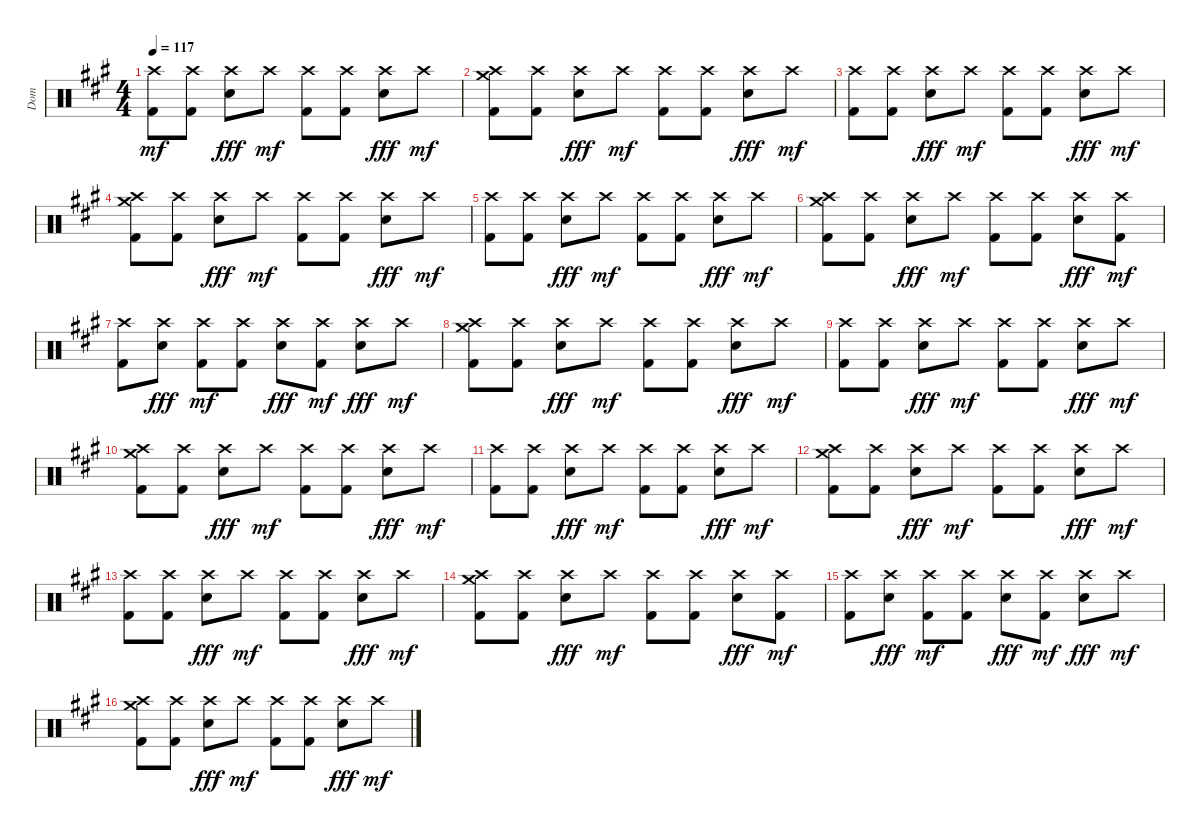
\track ("Dom" "Dom") {instrument percussion}
\staff {score}
\articulation defaults
\ts (4 4)
\tempo 117
\clef neutral
\ks a
("Crash high (hit)" "Kick (hit) 2").8{dy mf} ("Crash high (hit)" "Kick (hit) 2").8 ("Crash high (hit)" "Snare (hit) 2").8{dy fff} "Crash high (hit)".8{dy mf} ("Crash high (hit)" "Kick (hit) 2").8 ("Crash high (hit)" "Kick (hit) 2").8 ("Crash high (hit)" "Snare (hit) 2").8{dy fff} "Crash high (hit)".8{dy mf} |
("Crash medium (hit)" "Crash high (hit)" "Kick (hit) 2").8 ("Crash high (hit)" "Kick (hit) 2").8 ("Crash high (hit)" "Snare (hit) 2").8{dy fff} "Crash high (hit)".8{dy mf} ("Crash high (hit)" "Kick (hit) 2").8 ("Crash high (hit)" "Kick (hit) 2").8 ("Crash high (hit)" "Snare (hit) 2").8{dy fff} "Crash high (hit)".8{dy mf} |
("Crash high (hit)" "Kick (hit) 2").8 ("Crash high (hit)" "Kick (hit) 2").8 ("Crash high (hit)" "Snare (hit) 2").8{dy fff} "Crash high (hit)".8{dy mf} ("Crash high (hit)" "Kick (hit) 2").8 ("Crash high (hit)" "Kick (hit) 2").8 ("Crash high (hit)" "Snare (hit) 2").8{dy fff} "Crash high (hit)".8{dy mf} |
("Crash medium (hit)" "Crash high (hit)" "Kick (hit) 2").8 ("Crash high (hit)" "Kick (hit) 2").8 ("Crash high (hit)" "Snare (hit) 2").8{dy fff} "Crash high (hit)".8{dy mf} ("Crash high (hit)" "Kick (hit) 2").8 ("Crash high (hit)" "Kick (hit) 2").8 ("Crash high (hit)" "Snare (hit) 2").8{dy fff} "Crash high (hit)".8{dy mf} |
("Crash high (hit)" "Kick (hit) 2").8 ("Crash high (hit)" "Kick (hit) 2").8 ("Crash high (hit)" "Snare (hit) 2").8{dy fff} "Crash high (hit)".8{dy mf} ("Crash high (hit)" "Kick (hit) 2").8 ("Crash high (hit)" "Kick (hit) 2").8 ("Crash high (hit)" "Snare (hit) 2").8{dy fff} "Crash high (hit)".8{dy mf} |
("Crash medium (hit)" "Crash high (hit)" "Kick (hit) 2").8 ("Crash high (hit)" "Kick (hit) 2").8 ("Crash high (hit)" "Snare (hit) 2").8{dy fff} "Crash high (hit)".8{dy mf} ("Crash high (hit)" "Kick (hit) 2").8 ("Crash high (hit)" "Kick (hit) 2").8 ("Crash high (hit)" "Snare (hit) 2").8{dy fff} ("Crash high (hit)" "Kick (hit) 2").8{dy mf} |
("Crash high (hit)" "Kick (hit) 2").8 ("Crash high (hit)" "Snare (hit) 2").8{dy fff} ("Crash high (hit)" "Kick (hit) 2").8{dy mf} ("Crash high (hit)" "Kick (hit) 2").8 ("Crash high (hit)" "Snare (hit) 2").8{dy fff} ("Crash high (hit)" "Kick (hit) 2").8{dy mf} ("Crash high (hit)" "Snare (hit) 2").8{dy fff} "Crash high (hit)".8{dy mf} |
("Crash medium (hit)" "Crash high (hit)" "Kick (hit) 2").8 ("Crash high (hit)" "Kick (hit) 2").8 ("Crash high (hit)" "Snare (hit) 2").8{dy fff} "Crash high (hit)".8{dy mf} ("Crash high (hit)" "Kick (hit) 2").8 ("Crash high (hit)" "Kick (hit) 2").8 ("Crash high (hit)" "Snare (hit) 2").8{dy fff} "Crash high (hit)".8{dy mf} |
("Crash high (hit)" "Kick (hit) 2").8 ("Crash high (hit)" "Kick (hit) 2").8 ("Crash high (hit)" "Snare (hit) 2").8{dy fff} "Crash high (hit)".8{dy mf} ("Crash high (hit)" "Kick (hit) 2").8 ("Crash high (hit)" "Kick (hit) 2").8 ("Crash high (hit)" "Snare (hit) 2").8{dy fff} "Crash high (hit)".8{dy mf} |
("Crash medium (hit)" "Crash high (hit)" "Kick (hit) 2").8 ("Crash high (hit)" "Kick (hit) 2").8 ("Crash high (hit)" "Snare (hit) 2").8{dy fff} "Crash high (hit)".8{dy mf} ("Crash high (hit)" "Kick (hit) 2").8 ("Crash high (hit)" "Kick (hit) 2").8 ("Crash high (hit)" "Snare (hit) 2").8{dy fff} "Crash high (hit)".8{dy mf} |
("Crash high (hit)" "Kick (hit) 2").8 ("Crash high (hit)" "Kick (hit) 2").8 ("Crash high (hit)" "Snare (hit) 2").8{dy fff} "Crash high (hit)".8{dy mf} ("Crash high (hit)" "Kick (hit) 2").8 ("Crash high (hit)" "Kick (hit) 2").8 ("Crash high (hit)" "Snare (hit) 2").8{dy fff} "Crash high (hit)".8{dy mf} |
("Crash medium (hit)" "Crash high (hit)" "Kick (hit) 2").8 ("Crash high (hit)" "Kick (hit) 2").8 ("Crash high (hit)" "Snare (hit) 2").8{dy fff} "Crash high (hit)".8{dy mf} ("Crash high (hit)" "Kick (hit) 2").8 ("Crash high (hit)" "Kick (hit) 2").8 ("Crash high (hit)" "Snare (hit) 2").8{dy fff} "Crash high (hit)".8{dy mf} |
("Crash high (hit)" "Kick (hit) 2").8 ("Crash high (hit)" "Kick (hit) 2").8 ("Crash high (hit)" "Snare (hit) 2").8{dy fff} "Crash high (hit)".8{dy mf} ("Crash high (hit)" "Kick (hit) 2").8 ("Crash high (hit)" "Kick (hit) 2").8 ("Crash high (hit)" "Snare (hit) 2").8{dy fff} "Crash high (hit)".8{dy mf} |
("Crash medium (hit)" "Crash high (hit)" "Kick (hit) 2").8 ("Crash high (hit)" "Kick (hit) 2").8 ("Crash high (hit)" "Snare (hit) 2").8{dy fff} "Crash high (hit)".8{dy mf} ("Crash high (hit)" "Kick (hit) 2").8 ("Crash high (hit)" "Kick (hit) 2").8 ("Crash high (hit)" "Snare (hit) 2").8{dy fff} ("Crash high (hit)" "Kick (hit) 2").8{dy mf} |
("Crash high (hit)" "Kick (hit) 2").8 ("Crash high (hit)" "Snare (hit) 2").8{dy fff} ("Crash high (hit)" "Kick (hit) 2").8{dy mf} ("Crash high (hit)" "Kick (hit) 2").8 ("Crash high (hit)" "Snare (hit) 2").8{dy fff} ("Crash high (hit)" "Kick (hit) 2").8{dy mf} ("Crash high (hit)" "Snare (hit) 2").8{dy fff} "Crash high (hit)".8{dy mf} |
("Crash medium (hit)" "Crash high (hit)" "Kick (hit) 2").8 ("Crash high (hit)" "Kick (hit) 2").8 ("Crash high (hit)" "Snare (hit) 2").8{dy fff} "Crash high (hit)".8{dy mf} ("Crash high (hit)" "Kick (hit) 2").8 ("Crash high (hit)" "Kick (hit) 2").8 ("Crash high (hit)" "Snare (hit) 2").8{dy fff} "Crash high (hit)".8{dy mf}
